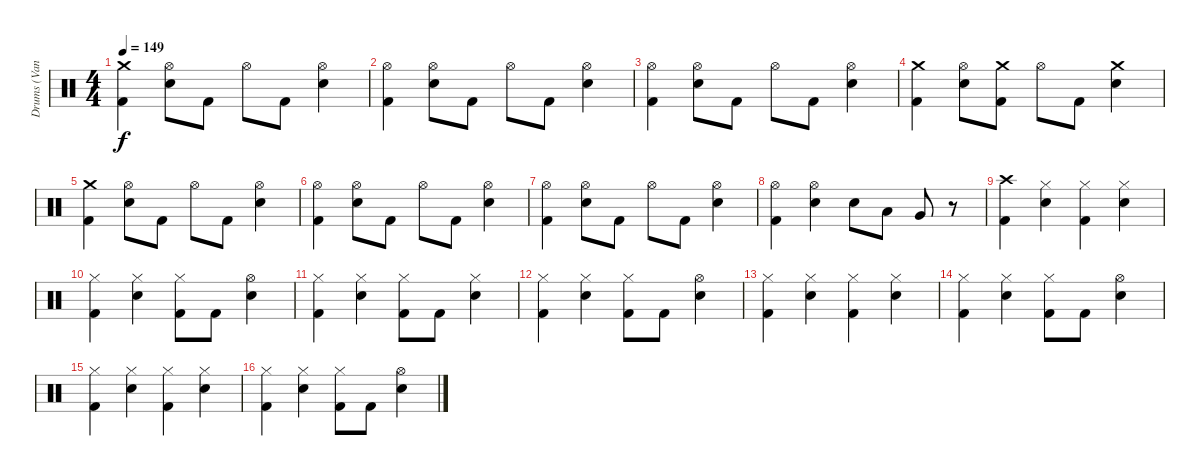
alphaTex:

\track ("Drums (Vandel)" "Drums (Van") {instrument percussion}
\staff {score}
\articulation defaults
\ts (4 4)
\tempo 149
\clef neutral
\ks c
("Crash medium (hit)" "Kick (hit) 2").4{dy f} ("Hi-Hat (open)" "Snare (hit) 2").8 "Kick (hit) 2".8 "Hi-Hat (open)".8 "Kick (hit) 2".8 ("Hi-Hat (open)" "Snare (hit) 2").4 |
("Hi-Hat (open)" "Kick (hit) 2").4 ("Hi-Hat (open)" "Snare (hit) 2").8 "Kick (hit) 2".8 "Hi-Hat (open)".8 "Kick (hit) 2".8 ("Hi-Hat (open)" "Snare (hit) 2").4 |
("Hi-Hat (open)" "Kick (hit) 2").4 ("Hi-Hat (open)" "Snare (hit) 2").8 "Kick (hit) 2".8 "Hi-Hat (open)".8 "Kick (hit) 2".8 ("Hi-Hat (open)" "Snare (hit) 2").4 |
("Crash medium (hit)" "Kick (hit) 2").4 ("Hi-Hat (open)" "Snare (hit) 2").8 ("Crash medium (hit)" "Kick (hit) 2").8 "Hi-Hat (open)".8 "Kick (hit) 2".8 ("Crash medium (hit)" "Snare (hit) 2").4 |
("Crash medium (hit)" "Kick (hit) 2").4 ("Hi-Hat (open)" "Snare (hit) 2").8 "Kick (hit) 2".8 "Hi-Hat (open)".8 "Kick (hit) 2".8 ("Hi-Hat (open)" "Snare (hit) 2").4 |
("Hi-Hat (open)" "Kick (hit) 2").4 ("Hi-Hat (open)" "Snare (hit) 2").8 "Kick (hit) 2".8 "Hi-Hat (open)".8 "Kick (hit) 2".8 ("Hi-Hat (open)" "Snare (hit) 2").4 |
("Hi-Hat (open)" "Kick (hit) 2").4 ("Hi-Hat (open)" "Snare (hit) 2").8 "Kick (hit) 2".8 "Hi-Hat (open)".8 "Kick (hit) 2".8 ("Hi-Hat (open)" "Snare (hit) 2").4 |
("Hi-Hat (open)" "Kick (hit) 2").4 ("Hi-Hat (open)" "Snare (hit) 2").4 "Snare (hit) 2".8 "Low Tom (hit)".8 "Very Low Tom (hit)".8 r.8 |
("Crash high (hit)" "Kick (hit) 2").4 ("Hi-Hat (closed)" "Snare (hit) 2").4 ("Hi-Hat (closed)" "Kick (hit) 2").4 ("Hi-Hat (closed)" "Snare (hit) 2").4 |
("Hi-Hat (closed)" "Kick (hit) 2").4 ("Hi-Hat (closed)" "Snare (hit) 2").4 ("Hi-Hat (closed)" "Kick (hit) 2").8 "Kick (hit) 2".8 ("Hi-Hat (open)" "Snare (hit) 2").4 |
("Hi-Hat (closed)" "Kick (hit) 2").4 ("Hi-Hat (closed)" "Snare (hit) 2").4 ("Hi-Hat (closed)" "Kick (hit) 2").8 "Kick (hit) 2".8 ("Hi-Hat (closed)" "Snare (hit) 2").4 |
("Hi-Hat (closed)" "Kick (hit) 2").4 ("Hi-Hat (closed)" "Snare (hit) 2").4 ("Hi-Hat (closed)" "Kick (hit) 2").8 "Kick (hit) 2".8 ("Hi-Hat (open)" "Snare (hit) 2").4 |
("Hi-Hat (closed)" "Kick (hit) 2").4 ("Hi-Hat (closed)" "Snare (hit) 2").4 ("Hi-Hat (closed)" "Kick (hit) 2").4 ("Hi-Hat (closed)" "Snare (hit) 2").4 |
("Hi-Hat (closed)" "Kick (hit) 2").4 ("Hi-Hat (closed)" "Snare (hit) 2").4 ("Hi-Hat (closed)" "Kick (hit) 2").8 "Kick (hit) 2".8 ("Hi-Hat (open)" "Snare (hit) 2").4 |
("Hi-Hat (closed)" "Kick (hit) 2").4 ("Hi-Hat (closed)" "Snare (hit) 2").4 ("Hi-Hat (closed)" "Kick (hit) 2").4 ("Hi-Hat (closed)" "Snare (hit) 2").4 |
("Hi-Hat (closed)" "Kick (hit) 2").4 ("Hi-Hat (closed)" "Snare (hit) 2").4 ("Hi-Hat (closed)" "Kick (hit) 2").8 "Kick (hit) 2".8 ("Hi-Hat (open)" "Snare (hit) 2").4
